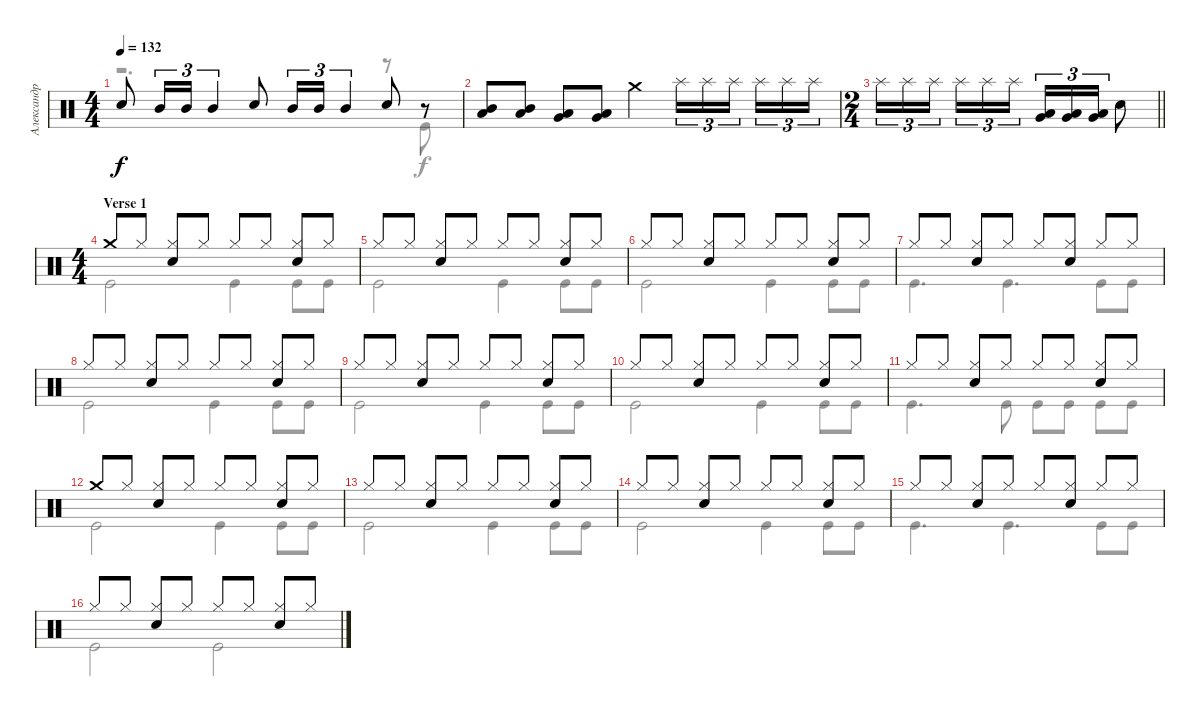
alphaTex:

\track ("Александр Манякин" "Александр ") {instrument percussion}
\staff {score}
\articulation defaults
\voice
\ts (4 4)
\tempo 132
\clef neutral
\ks c "Snare (hit) 2".8{dy f} "Mid Tom (hit)".16{tu (3 2)} "Mid Tom (hit)".16{tu (3 2)} "Mid Tom (hit)".4{tu (3 2)} "Snare (hit) 2".8 "Mid Tom (hit)".16{tu (3 2)} "Mid Tom (hit)".16{tu (3 2)} "Mid Tom (hit)".4{tu (3 2)} "Snare (hit) 2".8
r.8 |
("Low Tom (hit)" "Mid Tom (hit)").8 ("Low Tom (hit)" "Mid Tom (hit)").8 ("Very Low Tom (hit)" "Low Tom (hit)").8 ("Very Low Tom (hit)" "Low Tom (hit)").8 "Crash medium (hit)".4 "Splash (hit)".16{tu (3 2)} "Splash (hit)".16{tu (3 2)} "Splash (hit)".16{tu (3 2) beam splitsecondary} "Splash (hit)".16{tu (3 2)} "Splash (hit)".16{tu (3 2)} "Splash (hit)".16{tu (3 2)} |
\ts (2 4)
\barLineRight lightlight "Splash (hit)".16{tu (3 2)} "Splash (hit)".16{tu (3 2)} "Splash (hit)".16{tu (3 2) beam splitsecondary} "Splash (hit)".16{tu (3 2)} "Splash (hit)".16{tu (3 2)} "Splash (hit)".16{tu (3 2)}
("Very Low Tom (hit)" "Low Tom (hit)").16{tu (3 2)} ("Very Low Tom (hit)" "Low Tom (hit)").16{tu (3 2)} ("Very Low Tom (hit)" "Low Tom (hit)").16{tu (3 2)} "Snare (hit) 2".8 |
\ts (4 4)
\section ("" "Verse 1")
"Crash medium (hit)".8 "Hi-Hat (closed)".8 ("Hi-Hat (closed)" "Snare (hit) 2").8 "Hi-Hat (closed)".8 "Hi-Hat (closed)".8 "Hi-Hat (closed)".8 ("Hi-Hat (closed)" "Snare (hit) 2").8 "Hi-Hat (closed)".8 |
"Hi-Hat (closed)".8 "Hi-Hat (closed)".8 ("Hi-Hat (closed)" "Snare (hit) 2").8 "Hi-Hat (closed)".8 "Hi-Hat (closed)".8 "Hi-Hat (closed)".8 ("Hi-Hat (closed)" "Snare (hit) 2").8 "Hi-Hat (closed)".8 |
"Hi-Hat (closed)".8 "Hi-Hat (closed)".8 ("Hi-Hat (closed)" "Snare (hit) 2").8 "Hi-Hat (closed)".8 "Hi-Hat (closed)".8 "Hi-Hat (closed)".8 ("Hi-Hat (closed)" "Snare (hit) 2").8 "Hi-Hat (closed)".8 |
"Hi-Hat (closed)".8 "Hi-Hat (closed)".8 ("Hi-Hat (closed)" "Snare (hit) 2").8 "Hi-Hat (closed)".8 "Hi-Hat (closed)".8 ("Hi-Hat (closed)" "Snare (hit) 2").8 "Hi-Hat (closed)".8 "Hi-Hat (closed)".8 |
"Hi-Hat (closed)".8 "Hi-Hat (closed)".8 ("Hi-Hat (closed)" "Snare (hit) 2").8 "Hi-Hat (closed)".8 "Hi-Hat (closed)".8 "Hi-Hat (closed)".8 ("Hi-Hat (closed)" "Snare (hit) 2").8 "Hi-Hat (closed)".8 |
"Hi-Hat (closed)".8 "Hi-Hat (closed)".8 ("Hi-Hat (closed)" "Snare (hit) 2").8 "Hi-Hat (closed)".8 "Hi-Hat (closed)".8 "Hi-Hat (closed)".8 ("Hi-Hat (closed)" "Snare (hit) 2").8 "Hi-Hat (closed)".8 |
"Hi-Hat (closed)".8 "Hi-Hat (closed)".8 ("Hi-Hat (closed)" "Snare (hit) 2").8 "Hi-Hat (closed)".8 "Hi-Hat (closed)".8 "Hi-Hat (closed)".8 ("Hi-Hat (closed)" "Snare (hit) 2").8 "Hi-Hat (closed)".8 |
"Hi-Hat (closed)".8 "Hi-Hat (closed)".8 ("Hi-Hat (closed)" "Snare (hit) 2").8 "Hi-Hat (closed)".8 "Hi-Hat (closed)".8 "Hi-Hat (closed)".8 ("Hi-Hat (closed)" "Snare (hit) 2").8 "Hi-Hat (closed)".8 |
"Crash medium (hit)".8 "Hi-Hat (closed)".8 ("Hi-Hat (closed)" "Snare (hit) 2").8 "Hi-Hat (closed)".8 "Hi-Hat (closed)".8 "Hi-Hat (closed)".8 ("Hi-Hat (closed)" "Snare (hit) 2").8 "Hi-Hat (closed)".8 |
"Hi-Hat (closed)".8 "Hi-Hat (closed)".8 ("Hi-Hat (closed)" "Snare (hit) 2").8 "Hi-Hat (closed)".8 "Hi-Hat (closed)".8 "Hi-Hat (closed)".8 ("Hi-Hat (closed)" "Snare (hit) 2").8 "Hi-Hat (closed)".8 |
"Hi-Hat (closed)".8 "Hi-Hat (closed)".8 ("Hi-Hat (closed)" "Snare (hit) 2").8 "Hi-Hat (closed)".8 "Hi-Hat (closed)".8 "Hi-Hat (closed)".8 ("Hi-Hat (closed)" "Snare (hit) 2").8 "Hi-Hat (closed)".8 |
"Hi-Hat (closed)".8 "Hi-Hat (closed)".8 ("Hi-Hat (closed)" "Snare (hit) 2").8 "Hi-Hat (closed)".8 "Hi-Hat (closed)".8 ("Hi-Hat (closed)" "Snare (hit) 2").8 "Hi-Hat (closed)".8 "Hi-Hat (closed)".8 |
"Hi-Hat (closed)".8 "Hi-Hat (closed)".8 ("Hi-Hat (closed)" "Snare (hit) 2").8 "Hi-Hat (closed)".8 "Hi-Hat (closed)".8 "Hi-Hat (closed)".8 ("Hi-Hat (closed)" "Snare (hit) 2").8 "Hi-Hat (closed)".8
\voice
\clef neutral
\ottava regular
\simile none
\ks c
r.2{d dy f} r.8 "Kick (hit)".8 |
|
\barLineRight lightlight
|
"Kick (hit)".2 "Kick (hit)".4 "Kick (hit)".8 "Kick (hit)".8 |
"Kick (hit)".2 "Kick (hit)".4 "Kick (hit)".8 "Kick (hit)".8 |
"Kick (hit)".2 "Kick (hit)".4 "Kick (hit)".8 "Kick (hit)".8 |
"Kick (hit)".4{d} "Kick (hit)".4{d} "Kick (hit)".8 "Kick (hit)".8 |
"Kick (hit)".2 "Kick (hit)".4 "Kick (hit)".8 "Kick (hit)".8 |
"Kick (hit)".2 "Kick (hit)".4 "Kick (hit)".8 "Kick (hit)".8 |
"Kick (hit)".2 "Kick (hit)".4 "Kick (hit)".8 "Kick (hit)".8 |
"Kick (hit)".4{d} "Kick (hit)".8 "Kick (hit)".8 "Kick (hit)".8 "Kick (hit)".8 "Kick (hit)".8 |
"Kick (hit)".2 "Kick (hit)".4 "Kick (hit)".8 "Kick (hit)".8 |
"Kick (hit)".2 "Kick (hit)".4 "Kick (hit)".8 "Kick (hit)".8 |
"Kick (hit)".2 "Kick (hit)".4 "Kick (hit)".8 "Kick (hit)".8 |
"Kick (hit)".4{d} "Kick (hit)".4{d} "Kick (hit)".8 "Kick (hit)".8 |
"Kick (hit)".2 "Kick (hit)".2
